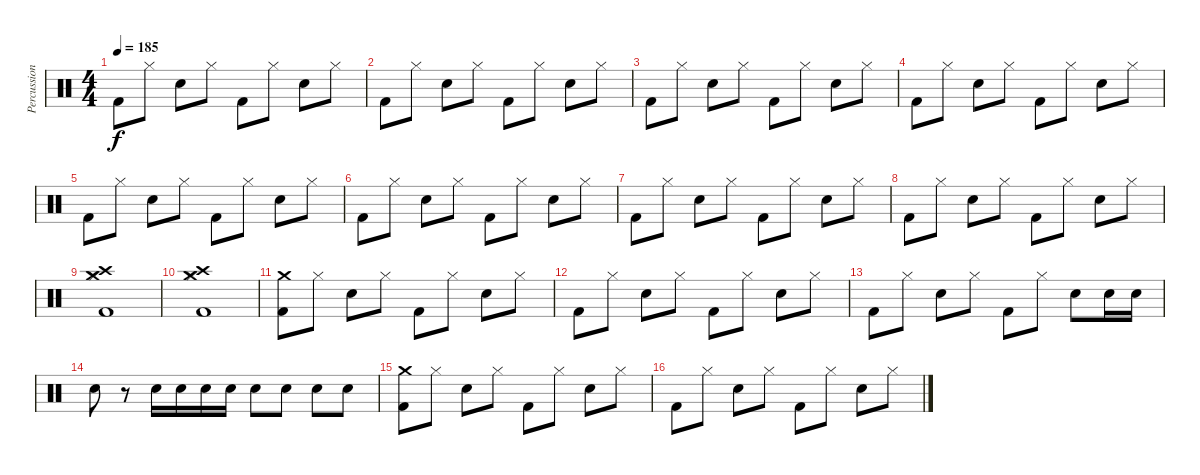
\track ("Percussions" "Percussion") {instrument percussion}
\staff {score}
\articulation defaults
\ts (4 4)
\tempo 185
\clef neutral
\ks c "Kick (hit) 2".8{dy f} "Hi-Hat (closed)".8 "Snare (hit) 2".8 "Hi-Hat (closed)".8 "Kick (hit) 2".8 "Hi-Hat (closed)".8 "Snare (hit) 2".8 "Hi-Hat (closed)".8
|
"Kick (hit) 2".8 "Hi-Hat (closed)".8 "Snare (hit) 2".8 "Hi-Hat (closed)".8 "Kick (hit) 2".8 "Hi-Hat (closed)".8 "Snare (hit) 2".8 "Hi-Hat (closed)".8 |
"Kick (hit) 2".8 "Hi-Hat (closed)".8 "Snare (hit) 2".8 "Hi-Hat (closed)".8 "Kick (hit) 2".8 "Hi-Hat (closed)".8 "Snare (hit) 2".8 "Hi-Hat (closed)".8 |
"Kick (hit) 2".8 "Hi-Hat (closed)".8 "Snare (hit) 2".8 "Hi-Hat (closed)".8 "Kick (hit) 2".8 "Hi-Hat (closed)".8 "Snare (hit) 2".8 "Hi-Hat (closed)".8 |
"Kick (hit) 2".8 "Hi-Hat (closed)".8 "Snare (hit) 2".8 "Hi-Hat (closed)".8 "Kick (hit) 2".8 "Hi-Hat (closed)".8 "Snare (hit) 2".8 "Hi-Hat (closed)".8 |
"Kick (hit) 2".8 "Hi-Hat (closed)".8 "Snare (hit) 2".8 "Hi-Hat (closed)".8 "Kick (hit) 2".8 "Hi-Hat (closed)".8 "Snare (hit) 2".8 "Hi-Hat (closed)".8 |
"Kick (hit) 2".8 "Hi-Hat (closed)".8 "Snare (hit) 2".8 "Hi-Hat (closed)".8 "Kick (hit) 2".8 "Hi-Hat (closed)".8 "Snare (hit) 2".8 "Hi-Hat (closed)".8 |
"Kick (hit) 2".8 "Hi-Hat (closed)".8 "Snare (hit) 2".8 "Hi-Hat (closed)".8 "Kick (hit) 2".8 "Hi-Hat (closed)".8 "Snare (hit) 2".8 "Hi-Hat (closed)".8 |
("Crash medium (hit)" "Crash high (hit)" "Hi-Hat (closed)" "Kick (hit) 2").1 |
("Crash medium (hit)" "Crash high (hit)" "Hi-Hat (closed)" "Kick (hit) 2").1 |
("Crash medium (hit)" "Kick (hit) 2").8 "Hi-Hat (closed)".8 "Snare (hit) 2".8 "Hi-Hat (closed)".8 "Kick (hit) 2".8 "Hi-Hat (closed)".8 "Snare (hit) 2".8 "Hi-Hat (closed)".8 |
"Kick (hit) 2".8 "Hi-Hat (closed)".8 "Snare (hit) 2".8 "Hi-Hat (closed)".8 "Kick (hit) 2".8 "Hi-Hat (closed)".8 "Snare (hit) 2".8 "Hi-Hat (closed)".8 |
"Kick (hit) 2".8 "Hi-Hat (closed)".8 "Snare (hit) 2".8 "Hi-Hat (closed)".8 "Kick (hit) 2".8 "Hi-Hat (closed)".8 "Snare (hit) 2".8 "Snare (hit) 2".16 "Snare (hit) 2".16 |
"Snare (hit) 2".8 r.8 "Snare (hit) 2".16 "Snare (hit) 2".16 "Snare (hit) 2".16 "Snare (hit) 2".16 "Snare (hit) 2".8 "Snare (hit) 2".8 "Snare (hit) 2".8 "Snare (hit) 2".8 |
("Crash medium (hit)" "Kick (hit) 2").8 "Hi-Hat (closed)".8 "Snare (hit) 2".8 "Hi-Hat (closed)".8 "Kick (hit) 2".8 "Hi-Hat (closed)".8 "Snare (hit) 2".8 "Hi-Hat (closed)".8 |
"Kick (hit) 2".8 "Hi-Hat (closed)".8 "Snare (hit) 2".8 "Hi-Hat (closed)".8 "Kick (hit) 2".8 "Hi-Hat (closed)".8 "Snare (hit) 2".8 "Hi-Hat (closed)".8
